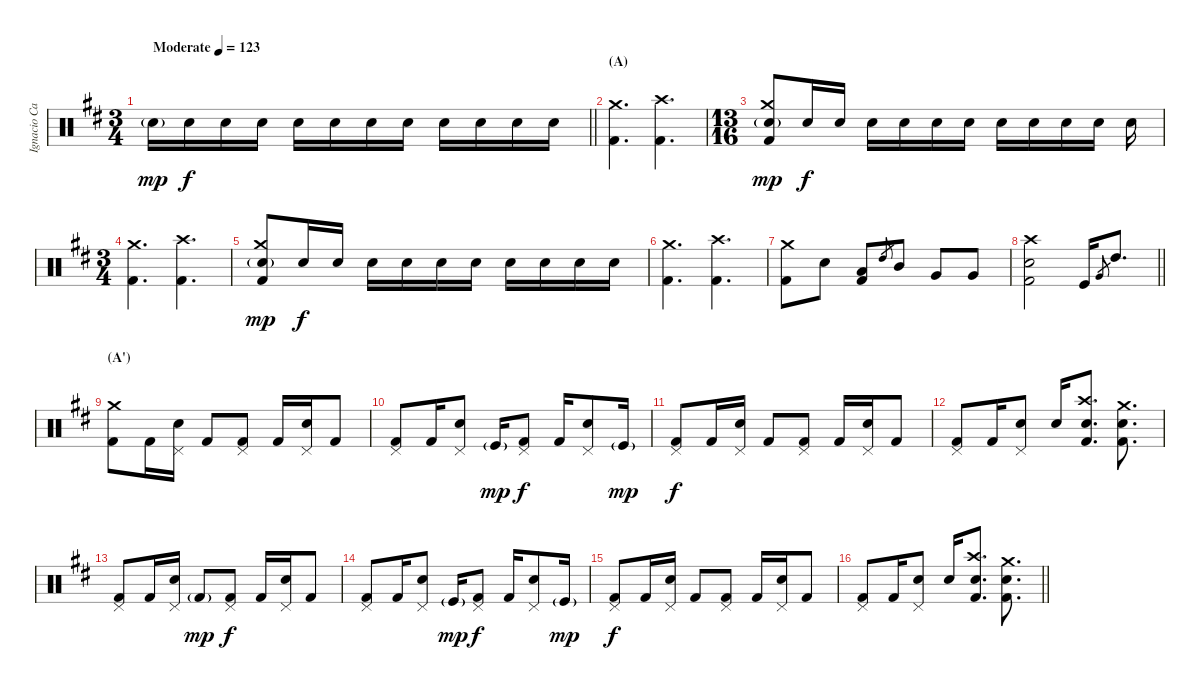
\track ("Ignacio Cantera - Batería" "Ignacio Ca") {instrument percussion}
\staff {score}
\articulation defaults
\ts (3 4)
\section ("" "")
\tempo (123 "Moderate")
\clef neutral
\barLineRight lightlight
\ks bminor "Electric Snare (hit)"{g}.16{dy mp} "Electric Snare (hit)".16{dy f} "Electric Snare (hit)".16 "Electric Snare (hit)".16 "Electric Snare (hit)".16 "Electric Snare (hit)".16 "Electric Snare (hit)".16 "Electric Snare (hit)".16 "Electric Snare (hit)".16 "Electric Snare (hit)".16 "Electric Snare (hit)".16 "Electric Snare (hit)".16
|
\section ("" "(A)")
("Crash medium (hit)" "Kick (hit) 2").4{d} ("Crash high (hit)" "Kick (hit) 2").4{d} |
\ts (13 16)
("Crash medium (hit)" "Electric Snare (hit)"{g} "Kick (hit) 2").8{dy mp} "Electric Snare (hit)".16{dy f} "Electric Snare (hit)".16 "Electric Snare (hit)".16 "Electric Snare (hit)".16 "Electric Snare (hit)".16 "Electric Snare (hit)".16 "Electric Snare (hit)".16 "Electric Snare (hit)".16 "Electric Snare (hit)".16 "Electric Snare (hit)".16 "Electric Snare (hit)".16 |
\ts (3 4)
("Crash medium (hit)" "Kick (hit) 2").4{d} ("Crash high (hit)" "Kick (hit) 2").4{d} |
("Crash medium (hit)" "Electric Snare (hit)"{g} "Kick (hit) 2").8{dy mp} "Electric Snare (hit)".16{dy f} "Electric Snare (hit)".16 "Electric Snare (hit)".16 "Electric Snare (hit)".16 "Electric Snare (hit)".16 "Electric Snare (hit)".16 "Electric Snare (hit)".16 "Electric Snare (hit)".16 "Electric Snare (hit)".16 "Electric Snare (hit)".16 |
("Crash medium (hit)" "Kick (hit) 2").4{d} ("Crash high (hit)" "Kick (hit) 2").4{d} |
("Crash medium (hit)" "Kick (hit) 2").8 "Electric Snare (hit)".8 ("Low Tom (hit)" "Kick (hit) 2").8 "High Tom (hit)".8{gr} "Mid Tom (hit)".8 "Very Low Tom (hit)".8 "Very Low Tom (hit)".8 |
\barLineRight lightlight
("Crash high (hit)" "Electric Snare (hit)" "Kick (hit) 2").2 "Kick (hit)".16 "Very Low Tom (hit)".8{gr} "High Tom (hit)".8{d} |
\section ("" "(A')")
("Crash medium (hit)" "Kick (hit) 2").8 "Kick (hit) 2".16 ("Pedal Hi-Hat (hit)" "Snare (hit) 2").16 "Kick (hit) 2".8 ("Pedal Hi-Hat (hit)" "Kick (hit) 2").8 "Kick (hit) 2".16 ("Pedal Hi-Hat (hit)" "Snare (hit) 2").16 "Kick (hit) 2".8 |
("Pedal Hi-Hat (hit)" "Kick (hit) 2").8 "Kick (hit) 2".16 ("Pedal Hi-Hat (hit)" "Snare (hit) 2").8 "Kick (hit)"{g}.16{dy mp} ("Pedal Hi-Hat (hit)" "Kick (hit) 2").8{dy f} "Kick (hit) 2".16 ("Pedal Hi-Hat (hit)" "Snare (hit) 2").8 "Kick (hit)"{g}.16{dy mp} |
("Pedal Hi-Hat (hit)" "Kick (hit) 2").8{dy f} "Kick (hit) 2".16 ("Pedal Hi-Hat (hit)" "Snare (hit) 2").16 "Kick (hit) 2".8 ("Pedal Hi-Hat (hit)" "Kick (hit) 2").8 "Kick (hit) 2".16 ("Pedal Hi-Hat (hit)" "Snare (hit) 2").16 "Kick (hit) 2".8 |
("Pedal Hi-Hat (hit)" "Kick (hit) 2").8 "Kick (hit) 2".16 ("Pedal Hi-Hat (hit)" "Snare (hit) 2").8 "Electric Snare (hit)".16 ("Crash high (hit)" "Snare (hit) 2" "Kick (hit) 2").8{d} ("Crash medium (hit)" "Snare (hit) 2" "Kick (hit) 2").8{d} |
("Pedal Hi-Hat (hit)" "Kick (hit) 2").8 "Kick (hit) 2".16 ("Pedal Hi-Hat (hit)" "Snare (hit) 2").16 "Kick (hit) 2"{g}.8{dy mp} ("Pedal Hi-Hat (hit)" "Kick (hit) 2").8{dy f} "Kick (hit) 2".16 ("Pedal Hi-Hat (hit)" "Snare (hit) 2").16 "Kick (hit) 2".8 |
("Pedal Hi-Hat (hit)" "Kick (hit) 2").8 "Kick (hit) 2".16 ("Pedal Hi-Hat (hit)" "Snare (hit) 2").8 "Kick (hit)"{g}.16{dy mp} ("Pedal Hi-Hat (hit)" "Kick (hit) 2").8{dy f} "Kick (hit) 2".16 ("Pedal Hi-Hat (hit)" "Snare (hit) 2").8 "Kick (hit)"{g}.16{dy mp} |
("Pedal Hi-Hat (hit)" "Kick (hit) 2").8{dy f} "Kick (hit) 2".16 ("Pedal Hi-Hat (hit)" "Snare (hit) 2").16 "Kick (hit) 2".8 ("Pedal Hi-Hat (hit)" "Kick (hit) 2").8 "Kick (hit) 2".16 ("Pedal Hi-Hat (hit)" "Snare (hit) 2").16 "Kick (hit) 2".8 |
\barLineRight lightlight
("Pedal Hi-Hat (hit)" "Kick (hit) 2").8 "Kick (hit) 2".16 ("Pedal Hi-Hat (hit)" "Snare (hit) 2").8 "Electric Snare (hit)".16 ("Crash high (hit)" "Snare (hit) 2" "Kick (hit) 2").8{d} ("Crash medium (hit)" "Snare (hit) 2" "Kick (hit) 2").8{d}
